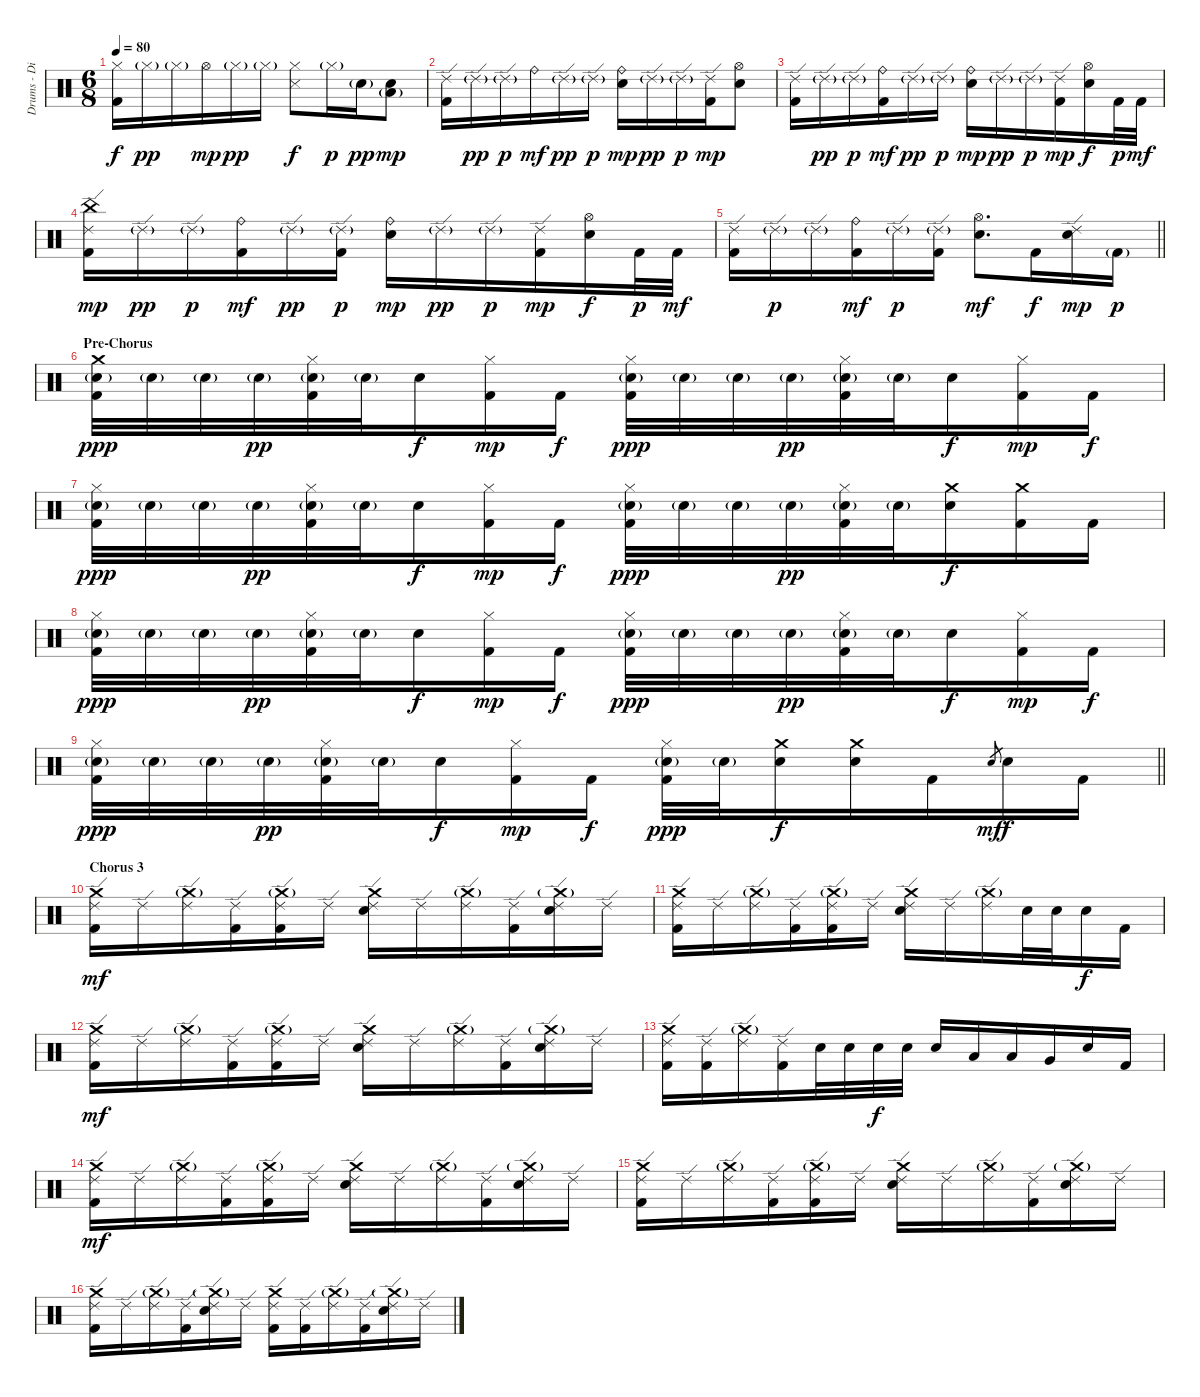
\track ("Drums - Dino Campanella" "Drums - Di") {instrument percussion}
\staff {score}
\articulation defaults
\ts (6 8)
\tempo 80
\clef neutral
\ks c
("Hi-Hat (closed)" "Kick (hit) 2").16{dy f} "Hi-Hat (closed)"{g}.16{dy pp} "Hi-Hat (closed)"{g}.16 "Hi-Hat (open)".16{dy mp} "Hi-Hat (closed)"{g}.16{dy pp} "Hi-Hat (closed)"{g}.16 ("Hi-Hat (closed)" "Snare (side stick) 3").8{dy f} "Hi-Hat (closed)"{g}.16{dy p} "Electric Snare (hit)"{g}.16{dy pp} ("Electric Snare (hit)" "Low Tom (hit)"{g}).8{dy mp} |
("Ride (edge) 2" "Kick (hit) 2").16 "Ride (edge) 2"{g}.16{dy pp} "Ride (edge) 2"{g}.16{dy p} "Ride (bell)".16{dy mf} "Ride (edge) 2"{g}.16{dy pp} "Ride (edge) 2"{g}.16{dy p} ("Ride (bell)" "Electric Snare (hit)").16{dy mp} "Ride (edge) 2"{g}.16{dy pp} "Ride (edge) 2"{g}.16{dy p} ("Ride (edge) 2" "Kick (hit) 2").16{dy mp} ("Hi-Hat (open)" "Electric Snare (hit)").8 |
("Ride (edge) 2" "Kick (hit) 2").16 "Ride (edge) 2"{g}.16{dy pp} "Ride (edge) 2"{g}.16{dy p} ("Ride (bell)" "Kick (hit) 2").16{dy mf} "Ride (edge) 2"{g}.16{dy pp} "Ride (edge) 2"{g}.16{dy p} ("Ride (bell)" "Electric Snare (hit)").16{dy mp} "Ride (edge) 2"{g}.16{dy pp} "Ride (edge) 2"{g}.16{dy p} ("Ride (edge) 2" "Kick (hit) 2").16{dy mp} ("Hi-Hat (open)" "Electric Snare (hit)").16{dy f} "Kick (hit) 2".32{dy p} "Kick (hit) 2".32{dy mf} |
("China (hit)" "Ride (edge) 2" "Kick (hit) 2").16{dy mp} "Ride (edge) 2"{g}.16{dy pp} "Ride (edge) 2"{g}.16{dy p} ("Ride (bell)" "Kick (hit) 2").16{dy mf} "Ride (edge) 2"{g}.16{dy pp} ("Ride (edge) 2"{g} "Kick (hit) 2").16{dy p} ("Ride (bell)" "Electric Snare (hit)").16{dy mp} "Ride (edge) 2"{g}.16{dy pp} "Ride (edge) 2"{g}.16{dy p} ("Ride (edge) 2" "Kick (hit) 2").16{dy mp} ("Hi-Hat (open)" "Electric Snare (hit)").16{dy f} "Kick (hit) 2".32{dy p} "Kick (hit) 2".32{dy mf} |
\barLineRight lightlight
("Ride (edge) 2" "Kick (hit) 2").16 "Ride (edge) 2"{g}.16{dy p} "Ride (edge) 2"{g}.16 ("Ride (bell)" "Kick (hit) 2").16{dy mf} "Ride (edge) 2"{g}.16{dy p} ("Ride (edge) 2"{g} "Kick (hit) 2").16 ("Hi-Hat (open)" "Electric Snare (hit)").8{d dy mf} "Kick (hit) 2".16{dy f} ("Ride (edge) 2" "Electric Snare (hit)").16{dy mp} "Kick (hit) 2"{g}.16{dy p} |
\section ("" "Pre-Chorus")
("Crash medium (hit)" "Snare (hit) 2"{g} "Kick (hit) 2").32{dy ppp} "Snare (hit) 2"{g}.32 "Snare (hit) 2"{g}.32 "Snare (hit) 2"{g}.32{dy pp} ("Hi-Hat (closed)" "Snare (hit) 2"{g} "Kick (hit) 2").32 "Snare (hit) 2"{g}.32 "Electric Snare (hit)".16{dy f} ("Hi-Hat (closed)" "Kick (hit) 2").16{dy mp} "Kick (hit) 2".16{dy f} ("Hi-Hat (closed)" "Snare (hit) 2"{g} "Kick (hit) 2").32{dy ppp} "Snare (hit) 2"{g}.32 "Snare (hit) 2"{g}.32 "Snare (hit) 2"{g}.32{dy pp} ("Hi-Hat (closed)" "Snare (hit) 2"{g} "Kick (hit) 2").32 "Snare (hit) 2"{g}.32 "Electric Snare (hit)".16{dy f} ("Hi-Hat (closed)" "Kick (hit) 2").16{dy mp} "Kick (hit) 2".16{dy f} |
("Hi-Hat (closed)" "Snare (hit) 2"{g} "Kick (hit) 2").32{dy ppp} "Snare (hit) 2"{g}.32 "Snare (hit) 2"{g}.32 "Snare (hit) 2"{g}.32{dy pp} ("Hi-Hat (closed)" "Snare (hit) 2"{g} "Kick (hit) 2").32 "Snare (hit) 2"{g}.32 "Electric Snare (hit)".16{dy f} ("Hi-Hat (closed)" "Kick (hit) 2").16{dy mp} "Kick (hit) 2".16{dy f} ("Hi-Hat (closed)" "Snare (hit) 2"{g} "Kick (hit) 2").32{dy ppp} "Snare (hit) 2"{g}.32 "Snare (hit) 2"{g}.32 "Snare (hit) 2"{g}.32{dy pp} ("Hi-Hat (closed)" "Snare (hit) 2"{g} "Kick (hit) 2").32 "Snare (hit) 2"{g}.32 ("Crash medium (hit)" "Electric Snare (hit)").16{dy f} ("Crash medium (hit)" "Kick (hit) 2").16 "Kick (hit) 2".16 |
("Hi-Hat (closed)" "Snare (hit) 2"{g} "Kick (hit) 2").32{dy ppp} "Snare (hit) 2"{g}.32 "Snare (hit) 2"{g}.32 "Snare (hit) 2"{g}.32{dy pp} ("Hi-Hat (closed)" "Snare (hit) 2"{g} "Kick (hit) 2").32 "Snare (hit) 2"{g}.32 "Electric Snare (hit)".16{dy f} ("Hi-Hat (closed)" "Kick (hit) 2").16{dy mp} "Kick (hit) 2".16{dy f} ("Hi-Hat (closed)" "Snare (hit) 2"{g} "Kick (hit) 2").32{dy ppp} "Snare (hit) 2"{g}.32 "Snare (hit) 2"{g}.32 "Snare (hit) 2"{g}.32{dy pp} ("Hi-Hat (closed)" "Snare (hit) 2"{g} "Kick (hit) 2").32 "Snare (hit) 2"{g}.32 "Electric Snare (hit)".16{dy f} ("Hi-Hat (closed)" "Kick (hit) 2").16{dy mp} "Kick (hit) 2".16{dy f} |
\barLineRight lightlight
("Hi-Hat (closed)" "Snare (hit) 2"{g} "Kick (hit) 2").32{dy ppp} "Snare (hit) 2"{g}.32 "Snare (hit) 2"{g}.32 "Snare (hit) 2"{g}.32{dy pp} ("Hi-Hat (closed)" "Snare (hit) 2"{g} "Kick (hit) 2").32 "Snare (hit) 2"{g}.32 "Electric Snare (hit)".16{dy f} ("Hi-Hat (closed)" "Kick (hit) 2").16{dy mp} "Kick (hit) 2".16{dy f} ("Hi-Hat (closed)" "Snare (hit) 2"{g} "Kick (hit) 2").32{dy ppp} "Snare (hit) 2"{g}.32 ("Crash medium (hit)" "Electric Snare (hit)").16{dy f} ("Crash medium (hit)" "Electric Snare (hit)").16 "Kick (hit) 2".16 "Electric Snare (hit)".8{gr dy mf} "Electric Snare (hit)".16{dy f} "Kick (hit) 2".16 |
\section ("" "Chorus 3")
("Crash medium (hit)" "Ride (edge) 2" "Kick (hit) 2").16{dy mf} "Ride (edge) 2".16 ("Crash medium (hit)"{g} "Ride (edge) 2").16 ("Ride (edge) 2" "Kick (hit) 2").16 ("Crash medium (hit)"{g} "Ride (edge) 2" "Kick (hit) 2").16 "Ride (edge) 2".16 ("Crash medium (hit)" "Ride (edge) 2" "Electric Snare (hit)").16 "Ride (edge) 2".16 ("Crash medium (hit)"{g} "Ride (edge) 2").16 ("Ride (edge) 2" "Kick (hit) 2").16 ("Crash medium (hit)"{g} "Ride (edge) 2" "Electric Snare (hit)").16 "Ride (edge) 2".16 |
("Crash medium (hit)" "Ride (edge) 2" "Kick (hit) 2").16 "Ride (edge) 2".16 ("Crash medium (hit)"{g} "Ride (edge) 2").16 ("Ride (edge) 2" "Kick (hit) 2").16 ("Crash medium (hit)"{g} "Ride (edge) 2" "Kick (hit) 2").16 "Ride (edge) 2".16 ("Crash medium (hit)" "Ride (edge) 2" "Electric Snare (hit)").16 "Ride (edge) 2".16 ("Crash medium (hit)"{g} "Ride (edge) 2").16 "Electric Snare (hit)".32 "Electric Snare (hit)".32 "Electric Snare (hit)".16{dy f} "Kick (hit) 2".16 |
("Crash medium (hit)" "Ride (edge) 2" "Kick (hit) 2").16{dy mf} "Ride (edge) 2".16 ("Crash medium (hit)"{g} "Ride (edge) 2").16 ("Ride (edge) 2" "Kick (hit) 2").16 ("Crash medium (hit)"{g} "Ride (edge) 2" "Kick (hit) 2").16 "Ride (edge) 2".16 ("Crash medium (hit)" "Ride (edge) 2" "Electric Snare (hit)").16 "Ride (edge) 2".16 ("Crash medium (hit)"{g} "Ride (edge) 2").16 ("Ride (edge) 2" "Kick (hit) 2").16 ("Crash medium (hit)"{g} "Ride (edge) 2" "Electric Snare (hit)").16 "Ride (edge) 2".16 |
("Crash medium (hit)" "Ride (edge) 2" "Kick (hit) 2").16 ("Ride (edge) 2" "Kick (hit) 2").16 ("Crash medium (hit)"{g} "Ride (edge) 2").16 ("Ride (edge) 2" "Kick (hit) 2").16 "Electric Snare (hit)".32 "Electric Snare (hit)".32 "Electric Snare (hit)".32{dy f} "Electric Snare (hit)".32 "Electric Snare (hit)".16 "Low Tom (hit)".16 "Low Tom (hit)".16 "Very Low Tom (hit)".16 "Electric Snare (hit)".16 "Kick (hit) 2".16 |
("Crash medium (hit)" "Ride (edge) 2" "Kick (hit) 2").16{dy mf} "Ride (edge) 2".16 ("Crash medium (hit)"{g} "Ride (edge) 2").16 ("Ride (edge) 2" "Kick (hit) 2").16 ("Crash medium (hit)"{g} "Ride (edge) 2" "Kick (hit) 2").16 "Ride (edge) 2".16 ("Crash medium (hit)" "Ride (edge) 2" "Electric Snare (hit)").16 "Ride (edge) 2".16 ("Crash medium (hit)"{g} "Ride (edge) 2").16 ("Ride (edge) 2" "Kick (hit) 2").16 ("Crash medium (hit)"{g} "Ride (edge) 2" "Electric Snare (hit)").16 "Ride (edge) 2".16 |
("Crash medium (hit)" "Ride (edge) 2" "Kick (hit) 2").16 "Ride (edge) 2".16 ("Crash medium (hit)"{g} "Ride (edge) 2").16 ("Ride (edge) 2" "Kick (hit) 2").16 ("Crash medium (hit)"{g} "Ride (edge) 2" "Kick (hit) 2").16 "Ride (edge) 2".16 ("Crash medium (hit)" "Ride (edge) 2" "Electric Snare (hit)").16 "Ride (edge) 2".16 ("Crash medium (hit)"{g} "Ride (edge) 2").16 ("Ride (edge) 2" "Kick (hit) 2").16 ("Crash medium (hit)"{g} "Ride (edge) 2" "Electric Snare (hit)").16 "Ride (edge) 2".16 |
("Crash medium (hit)" "Ride (edge) 2" "Kick (hit) 2").16 "Ride (edge) 2".16 ("Crash medium (hit)"{g} "Ride (edge) 2").16 ("Ride (edge) 2" "Kick (hit) 2").16 ("Crash medium (hit)"{g} "Ride (edge) 2" "Electric Snare (hit)").16 "Ride (edge) 2".16 ("Crash medium (hit)" "Ride (edge) 2" "Kick (hit) 2").16 ("Ride (edge) 2" "Kick (hit) 2").16 ("Crash medium (hit)"{g} "Ride (edge) 2").16 ("Ride (edge) 2" "Kick (hit) 2").16 ("Crash medium (hit)"{g} "Ride (edge) 2" "Electric Snare (hit)").16 "Ride (edge) 2".16
